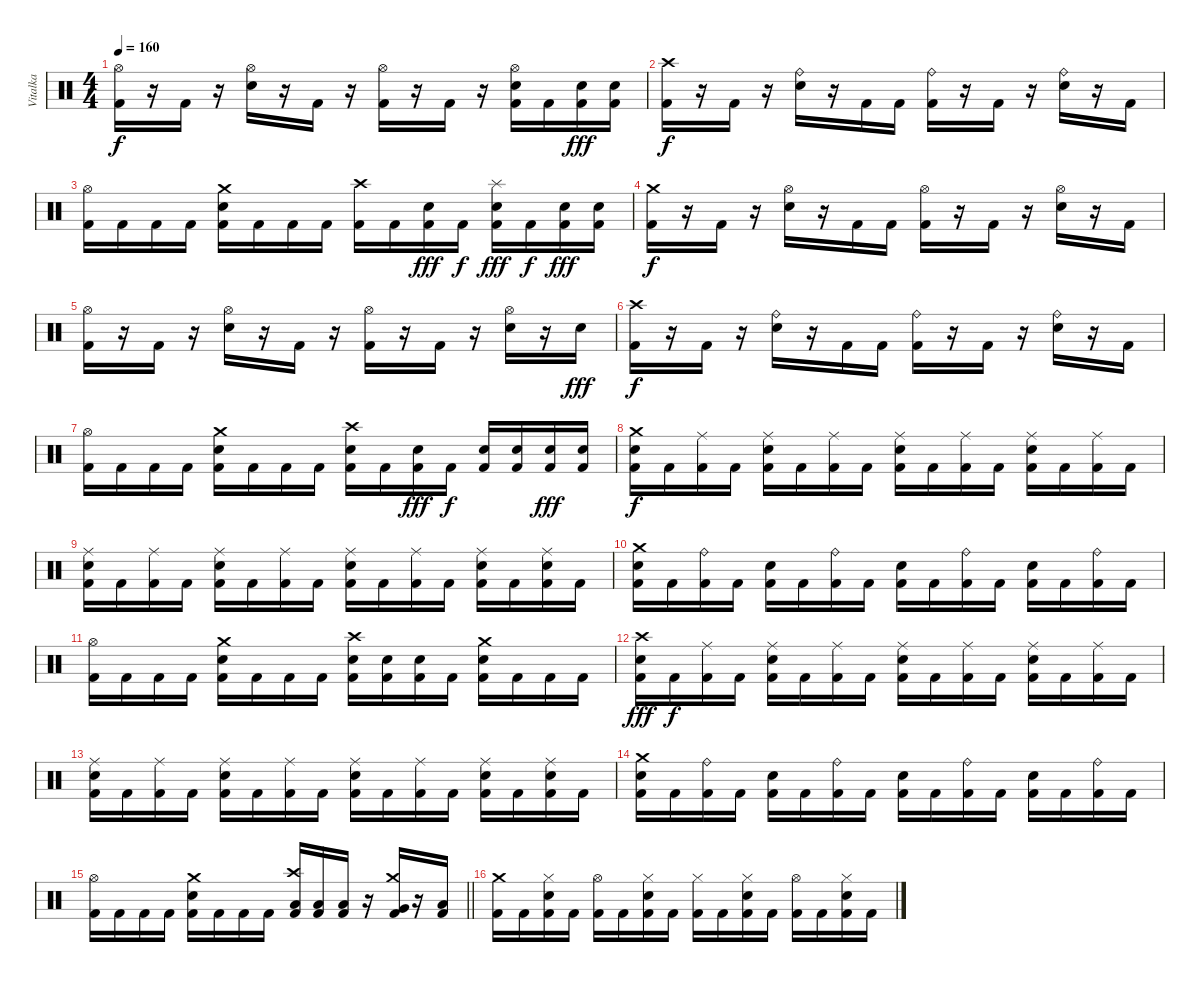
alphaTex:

\track ("Vitalka" "Vitalka") {instrument percussion}
\staff {score}
\articulation defaults
\ts (4 4)
\tempo 160
\clef neutral
\ks c
("Hi-Hat (open)" "Kick (hit) 2").16{dy f} r.16 "Kick (hit) 2".16 r.16 ("Hi-Hat (open)" "Snare (hit) 2").16 r.16 "Kick (hit) 2".16 r.16 ("Hi-Hat (open)" "Kick (hit) 2").16 r.16 "Kick (hit) 2".16 r.16 ("Hi-Hat (open)" "Snare (hit) 2" "Kick (hit) 2").16 "Kick (hit) 2".16 ("Snare (hit) 2" "Kick (hit) 2").16{dy fff} ("Snare (hit) 2" "Kick (hit) 2").16 |
("Crash high (hit)" "Kick (hit) 2").16{dy f} r.16 "Kick (hit) 2".16 r.16 ("Ride (bell)" "Snare (hit) 2").16 r.16 "Kick (hit) 2".16 "Kick (hit) 2".16 ("Ride (bell)" "Kick (hit) 2").16 r.16 "Kick (hit) 2".16 r.16 ("Ride (bell)" "Snare (hit) 2").16 r.16 "Kick (hit) 2".16 |
("Hi-Hat (open)" "Kick (hit) 2").16 "Kick (hit) 2".16 "Kick (hit) 2".16 "Kick (hit) 2".16 ("Crash medium (hit)" "Snare (hit) 2" "Kick (hit) 2").16 "Kick (hit) 2".16 "Kick (hit) 2".16 "Kick (hit) 2".16 ("Crash high (hit)" "Kick (hit) 2").16 "Kick (hit) 2".16 ("Snare (hit) 2" "Kick (hit) 2").16{dy fff} "Kick (hit) 2".16{dy f} ("Splash (hit)" "Snare (hit) 2" "Kick (hit) 2").16{dy fff} "Kick (hit) 2".16{dy f} ("Snare (hit) 2" "Kick (hit) 2").16{dy fff} ("Snare (hit) 2" "Kick (hit) 2").16 |
("Crash medium (hit)" "Kick (hit) 2").16{dy f} r.16 "Kick (hit) 2".16 r.16 ("Hi-Hat (open)" "Snare (hit) 2").16 r.16 "Kick (hit) 2".16 "Kick (hit) 2".16 ("Hi-Hat (open)" "Kick (hit) 2").16 r.16 "Kick (hit) 2".16 r.16 ("Hi-Hat (open)" "Snare (hit) 2").16 r.16 "Kick (hit) 2".16 |
("Hi-Hat (open)" "Kick (hit) 2").16 r.16 "Kick (hit) 2".16 r.16 ("Hi-Hat (open)" "Snare (hit) 2").16 r.16 "Kick (hit) 2".16 r.16 ("Hi-Hat (open)" "Kick (hit) 2").16 r.16 "Kick (hit) 2".16 r.16 ("Hi-Hat (open)" "Snare (hit) 2").16 r.16 "Snare (hit) 2".16{dy fff} |
("Crash high (hit)" "Kick (hit) 2").16{dy f} r.16 "Kick (hit) 2".16 r.16 ("Ride (bell)" "Snare (hit) 2").16 r.16 "Kick (hit) 2".16 "Kick (hit) 2".16 ("Ride (bell)" "Kick (hit) 2").16 r.16 "Kick (hit) 2".16 r.16 ("Ride (bell)" "Snare (hit) 2").16 r.16 "Kick (hit) 2".16 |
("Hi-Hat (open)" "Kick (hit) 2").16 "Kick (hit) 2".16 "Kick (hit) 2".16 "Kick (hit) 2".16 ("Crash medium (hit)" "Snare (hit) 2" "Kick (hit) 2").16 "Kick (hit) 2".16 "Kick (hit) 2".16 "Kick (hit) 2".16 ("Crash high (hit)" "Snare (hit) 2" "Kick (hit) 2").16 "Kick (hit) 2".16 ("Snare (hit) 2" "Kick (hit) 2").16{dy fff} "Kick (hit) 2".16{dy f} ("Snare (hit) 2" "Kick (hit) 2").16 ("Snare (hit) 2" "Kick (hit) 2").16 ("Snare (hit) 2" "Kick (hit) 2").16{dy fff} ("Snare (hit) 2" "Kick (hit) 2").16 |
("Crash medium (hit)" "Snare (hit) 2" "Kick (hit) 2").16{dy f} "Kick (hit) 2".16 ("Ride (middle)" "Kick (hit) 2").16 "Kick (hit) 2".16 ("Ride (middle)" "Snare (hit) 2" "Kick (hit) 2").16 "Kick (hit) 2".16 ("Ride (middle)" "Kick (hit) 2").16 "Kick (hit) 2".16 ("Ride (middle)" "Snare (hit) 2" "Kick (hit) 2").16 "Kick (hit) 2".16 ("Ride (middle)" "Kick (hit) 2").16 "Kick (hit) 2".16 ("Ride (middle)" "Snare (hit) 2" "Kick (hit) 2").16 "Kick (hit) 2".16 ("Ride (middle)" "Kick (hit) 2").16 "Kick (hit) 2".16 |
("Ride (middle)" "Snare (hit) 2" "Kick (hit) 2").16 "Kick (hit) 2".16 ("Ride (middle)" "Kick (hit) 2").16 "Kick (hit) 2".16 ("Ride (middle)" "Snare (hit) 2" "Kick (hit) 2").16 "Kick (hit) 2".16 ("Ride (middle)" "Kick (hit) 2").16 "Kick (hit) 2".16 ("Ride (middle)" "Snare (hit) 2" "Kick (hit) 2").16 "Kick (hit) 2".16 ("Ride (middle)" "Kick (hit) 2").16 "Kick (hit) 2".16 ("Ride (middle)" "Snare (hit) 2" "Kick (hit) 2").16 "Kick (hit) 2".16 ("Ride (middle)" "Snare (hit) 2" "Kick (hit) 2").16 "Kick (hit) 2".16 |
("Crash medium (hit)" "Snare (hit) 2" "Kick (hit) 2").16 "Kick (hit) 2".16 ("Ride (bell)" "Kick (hit) 2").16 "Kick (hit) 2".16 ("Snare (hit) 2" "Kick (hit) 2").16 "Kick (hit) 2".16 ("Ride (bell)" "Kick (hit) 2").16 "Kick (hit) 2".16 ("Snare (hit) 2" "Kick (hit) 2").16 "Kick (hit) 2".16 ("Ride (bell)" "Kick (hit) 2").16 "Kick (hit) 2".16 ("Snare (hit) 2" "Kick (hit) 2").16 "Kick (hit) 2".16 ("Ride (bell)" "Kick (hit) 2").16 "Kick (hit) 2".16 |
("Hi-Hat (open)" "Kick (hit) 2").16 "Kick (hit) 2".16 "Kick (hit) 2".16 "Kick (hit) 2".16 ("Crash medium (hit)" "Snare (hit) 2" "Kick (hit) 2").16 "Kick (hit) 2".16 "Kick (hit) 2".16 "Kick (hit) 2".16 ("Crash high (hit)" "Snare (hit) 2" "Kick (hit) 2").16 ("Snare (hit) 2" "Kick (hit) 2").16 ("Snare (hit) 2" "Kick (hit) 2").16 "Kick (hit) 2".16 ("Crash medium (hit)" "Snare (hit) 2" "Kick (hit) 2").16 "Kick (hit) 2".16 "Kick (hit) 2".16 "Kick (hit) 2".16 |
("Crash high (hit)" "Snare (hit) 2" "Kick (hit) 2").16{dy fff} "Kick (hit) 2".16{dy f} ("Ride (middle)" "Kick (hit) 2").16 "Kick (hit) 2".16 ("Ride (middle)" "Snare (hit) 2" "Kick (hit) 2").16 "Kick (hit) 2".16 ("Ride (middle)" "Kick (hit) 2").16 "Kick (hit) 2".16 ("Ride (middle)" "Snare (hit) 2" "Kick (hit) 2").16 "Kick (hit) 2".16 ("Ride (middle)" "Kick (hit) 2").16 "Kick (hit) 2".16 ("Ride (middle)" "Snare (hit) 2" "Kick (hit) 2").16 "Kick (hit) 2".16 ("Ride (middle)" "Kick (hit) 2").16 "Kick (hit) 2".16 |
("Ride (middle)" "Snare (hit) 2" "Kick (hit) 2").16 "Kick (hit) 2".16 ("Ride (middle)" "Kick (hit) 2").16 "Kick (hit) 2".16 ("Ride (middle)" "Snare (hit) 2" "Kick (hit) 2").16 "Kick (hit) 2".16 ("Ride (middle)" "Kick (hit) 2").16 "Kick (hit) 2".16 ("Ride (middle)" "Snare (hit) 2" "Kick (hit) 2").16 "Kick (hit) 2".16 ("Ride (middle)" "Kick (hit) 2").16 "Kick (hit) 2".16 ("Ride (middle)" "Snare (hit) 2" "Kick (hit) 2").16 "Kick (hit) 2".16 ("Ride (middle)" "Snare (hit) 2" "Kick (hit) 2").16 "Kick (hit) 2".16 |
("Crash medium (hit)" "Snare (hit) 2" "Kick (hit) 2").16 "Kick (hit) 2".16 ("Ride (bell)" "Kick (hit) 2").16 "Kick (hit) 2".16 ("Snare (hit) 2" "Kick (hit) 2").16 "Kick (hit) 2".16 ("Ride (bell)" "Kick (hit) 2").16 "Kick (hit) 2".16 ("Snare (hit) 2" "Kick (hit) 2").16 "Kick (hit) 2".16 ("Ride (bell)" "Kick (hit) 2").16 "Kick (hit) 2".16 ("Snare (hit) 2" "Kick (hit) 2").16 "Kick (hit) 2".16 ("Ride (bell)" "Kick (hit) 2").16 "Kick (hit) 2".16 |
\barLineRight lightlight
("Hi-Hat (open)" "Kick (hit) 2").16 "Kick (hit) 2".16 "Kick (hit) 2".16 "Kick (hit) 2".16 ("Crash medium (hit)" "Snare (hit) 2" "Kick (hit) 2").16 "Kick (hit) 2".16 "Kick (hit) 2".16 "Kick (hit) 2".16 ("Crash high (hit)" "Low Tom (hit)" "Kick (hit) 2").16 ("Low Tom (hit)" "Kick (hit) 2").16 ("Low Tom (hit)" "Kick (hit) 2").16 r.16 ("Crash medium (hit)" "Very Low Tom (hit)" "Kick (hit) 2").16 r.16 ("Low Tom (hit)" "Kick (hit) 2").16 |
("Crash medium (hit)" "Kick (hit) 2").16 "Kick (hit) 2".16 ("Hi-Hat (closed)" "Snare (hit) 2" "Kick (hit) 2").16 "Kick (hit) 2".16 ("Hi-Hat (open)" "Kick (hit) 2").16 "Kick (hit) 2".16 ("Hi-Hat (closed)" "Snare (hit) 2" "Kick (hit) 2").16 "Kick (hit) 2".16 ("Hi-Hat (closed)" "Kick (hit) 2").16 "Kick (hit) 2".16 ("Hi-Hat (closed)" "Snare (hit) 2" "Kick (hit) 2").16 "Kick (hit) 2".16 ("Hi-Hat (open)" "Kick (hit) 2").16 "Kick (hit) 2".16 ("Hi-Hat (closed)" "Snare (hit) 2" "Kick (hit) 2").16 "Kick (hit) 2".16
